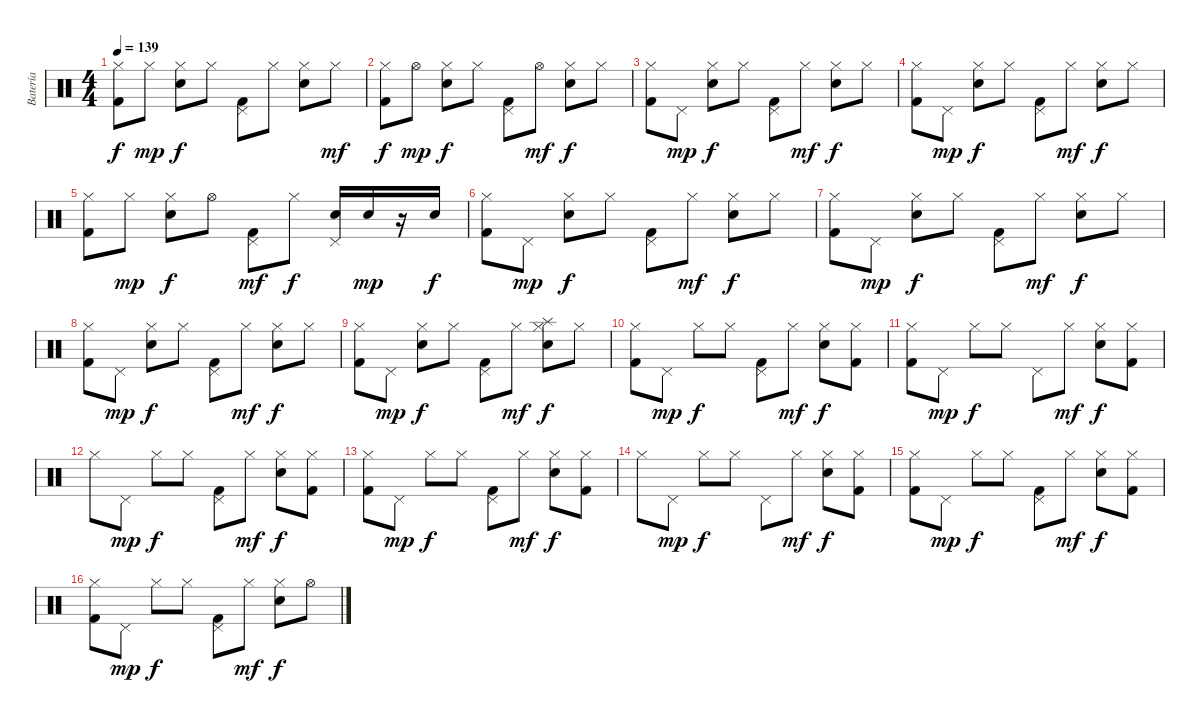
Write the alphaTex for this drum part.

\track ("Batería" "Batería") {instrument percussion}
\staff {score}
\articulation defaults
\ts (4 4)
\tempo 139
\clef neutral
\ks c
("Hi-Hat (closed)" "Kick (hit) 2").8{dy f} "Hi-Hat (closed)".8{dy mp} ("Hi-Hat (closed)" "Snare (hit) 2").8{dy f} "Hi-Hat (closed)".8 ("Pedal Hi-Hat (hit)" "Kick (hit) 2").8 "Hi-Hat (closed)".8 ("Hi-Hat (closed)" "Snare (hit) 2").8 "Hi-Hat (closed)".8{dy mf} |
("Hi-Hat (closed)" "Kick (hit) 2").8{dy f} "Hi-Hat (open)".8{dy mp} ("Hi-Hat (closed)" "Snare (hit) 2").8{dy f} "Hi-Hat (closed)".8 ("Pedal Hi-Hat (hit)" "Kick (hit) 2").8 "Hi-Hat (open)".8{dy mf} ("Hi-Hat (closed)" "Snare (hit) 2").8{dy f} "Hi-Hat (closed)".8 |
("Hi-Hat (closed)" "Kick (hit) 2").8 "Pedal Hi-Hat (hit)".8{dy mp} ("Hi-Hat (closed)" "Snare (hit) 2").8{dy f} "Hi-Hat (closed)".8 ("Pedal Hi-Hat (hit)" "Kick (hit) 2").8 "Hi-Hat (closed)".8{dy mf} ("Hi-Hat (closed)" "Snare (hit) 2").8{dy f} "Hi-Hat (closed)".8 |
("Hi-Hat (closed)" "Kick (hit) 2").8 "Pedal Hi-Hat (hit)".8{dy mp} ("Hi-Hat (closed)" "Snare (hit) 2").8{dy f} "Hi-Hat (closed)".8 ("Pedal Hi-Hat (hit)" "Kick (hit) 2").8 "Hi-Hat (closed)".8{dy mf} ("Hi-Hat (closed)" "Snare (hit) 2").8{dy f} "Hi-Hat (closed)".8 |
("Hi-Hat (closed)" "Kick (hit) 2").8 "Hi-Hat (closed)".8{dy mp} ("Hi-Hat (closed)" "Snare (hit) 2").8{dy f} "Hi-Hat (open)".8 ("Pedal Hi-Hat (hit)" "Kick (hit) 2").8{dy mf} "Hi-Hat (closed)".8{dy f} ("Pedal Hi-Hat (hit)" "Snare (hit) 2").16 "Snare (hit) 2".16{dy mp} r.16 "Snare (hit) 2".16{dy f} |
("Hi-Hat (closed)" "Kick (hit) 2").8 "Pedal Hi-Hat (hit)".8{dy mp} ("Hi-Hat (closed)" "Snare (hit) 2").8{dy f} "Hi-Hat (closed)".8 ("Pedal Hi-Hat (hit)" "Kick (hit) 2").8 "Hi-Hat (closed)".8{dy mf} ("Hi-Hat (closed)" "Snare (hit) 2").8{dy f} "Hi-Hat (closed)".8 |
("Hi-Hat (closed)" "Kick (hit) 2").8 "Pedal Hi-Hat (hit)".8{dy mp} ("Hi-Hat (closed)" "Snare (hit) 2").8{dy f} "Hi-Hat (closed)".8 ("Pedal Hi-Hat (hit)" "Kick (hit) 2").8 "Hi-Hat (closed)".8{dy mf} ("Hi-Hat (closed)" "Snare (hit) 2").8{dy f} "Hi-Hat (closed)".8 |
("Hi-Hat (closed)" "Kick (hit) 2").8 "Pedal Hi-Hat (hit)".8{dy mp} ("Hi-Hat (closed)" "Snare (hit) 2").8{dy f} "Hi-Hat (closed)".8 ("Pedal Hi-Hat (hit)" "Kick (hit) 2").8 "Hi-Hat (closed)".8{dy mf} ("Hi-Hat (closed)" "Snare (hit) 2").8{dy f} "Hi-Hat (closed)".8 |
("Hi-Hat (closed)" "Kick (hit) 2").8 "Pedal Hi-Hat (hit)".8{dy mp} ("Hi-Hat (closed)" "Snare (hit) 2").8{dy f} "Hi-Hat (closed)".8 ("Pedal Hi-Hat (hit)" "Kick (hit) 2").8 "Hi-Hat (closed)".8{dy mf} ("Splash (hit)" "Hi-Hat (closed)" "Snare (hit) 2").8{dy f} "Hi-Hat (closed)".8 |
("Hi-Hat (closed)" "Kick (hit) 2").8 "Pedal Hi-Hat (hit)".8{dy mp} "Hi-Hat (closed)".8{dy f} "Hi-Hat (closed)".8 ("Pedal Hi-Hat (hit)" "Kick (hit) 2").8 "Hi-Hat (closed)".8{dy mf} ("Hi-Hat (closed)" "Snare (hit) 2").8{dy f} ("Hi-Hat (closed)" "Kick (hit) 2").8 |
("Hi-Hat (closed)" "Kick (hit) 2").8 "Pedal Hi-Hat (hit)".8{dy mp} "Hi-Hat (closed)".8{dy f} "Hi-Hat (closed)".8 "Pedal Hi-Hat (hit)".8 "Hi-Hat (closed)".8{dy mf} ("Hi-Hat (closed)" "Snare (hit) 2").8{dy f} ("Hi-Hat (closed)" "Kick (hit) 2").8 |
"Hi-Hat (closed)".8 "Pedal Hi-Hat (hit)".8{dy mp} "Hi-Hat (closed)".8{dy f} "Hi-Hat (closed)".8 ("Pedal Hi-Hat (hit)" "Kick (hit) 2").8 "Hi-Hat (closed)".8{dy mf} ("Hi-Hat (closed)" "Snare (hit) 2").8{dy f} ("Hi-Hat (closed)" "Kick (hit) 2").8 |
("Hi-Hat (closed)" "Kick (hit) 2").8 "Pedal Hi-Hat (hit)".8{dy mp} "Hi-Hat (closed)".8{dy f} "Hi-Hat (closed)".8 ("Pedal Hi-Hat (hit)" "Kick (hit) 2").8 "Hi-Hat (closed)".8{dy mf} ("Hi-Hat (closed)" "Snare (hit) 2").8{dy f} ("Hi-Hat (closed)" "Kick (hit) 2").8 |
"Hi-Hat (closed)".8 "Pedal Hi-Hat (hit)".8{dy mp} "Hi-Hat (closed)".8{dy f} "Hi-Hat (closed)".8 "Pedal Hi-Hat (hit)".8 "Hi-Hat (closed)".8{dy mf} ("Hi-Hat (closed)" "Snare (hit) 2").8{dy f} ("Hi-Hat (closed)" "Kick (hit) 2").8 |
("Hi-Hat (closed)" "Kick (hit) 2").8 "Pedal Hi-Hat (hit)".8{dy mp} "Hi-Hat (closed)".8{dy f} "Hi-Hat (closed)".8 ("Pedal Hi-Hat (hit)" "Kick (hit) 2").8 "Hi-Hat (closed)".8{dy mf} ("Hi-Hat (closed)" "Snare (hit) 2").8{dy f} ("Hi-Hat (closed)" "Kick (hit) 2").8 |
("Hi-Hat (closed)" "Kick (hit) 2").8 "Pedal Hi-Hat (hit)".8{dy mp} "Hi-Hat (closed)".8{dy f} "Hi-Hat (closed)".8 ("Pedal Hi-Hat (hit)" "Kick (hit) 2").8 "Hi-Hat (closed)".8{dy mf} ("Hi-Hat (closed)" "Snare (hit) 2").8{dy f} "Hi-Hat (open)".8
